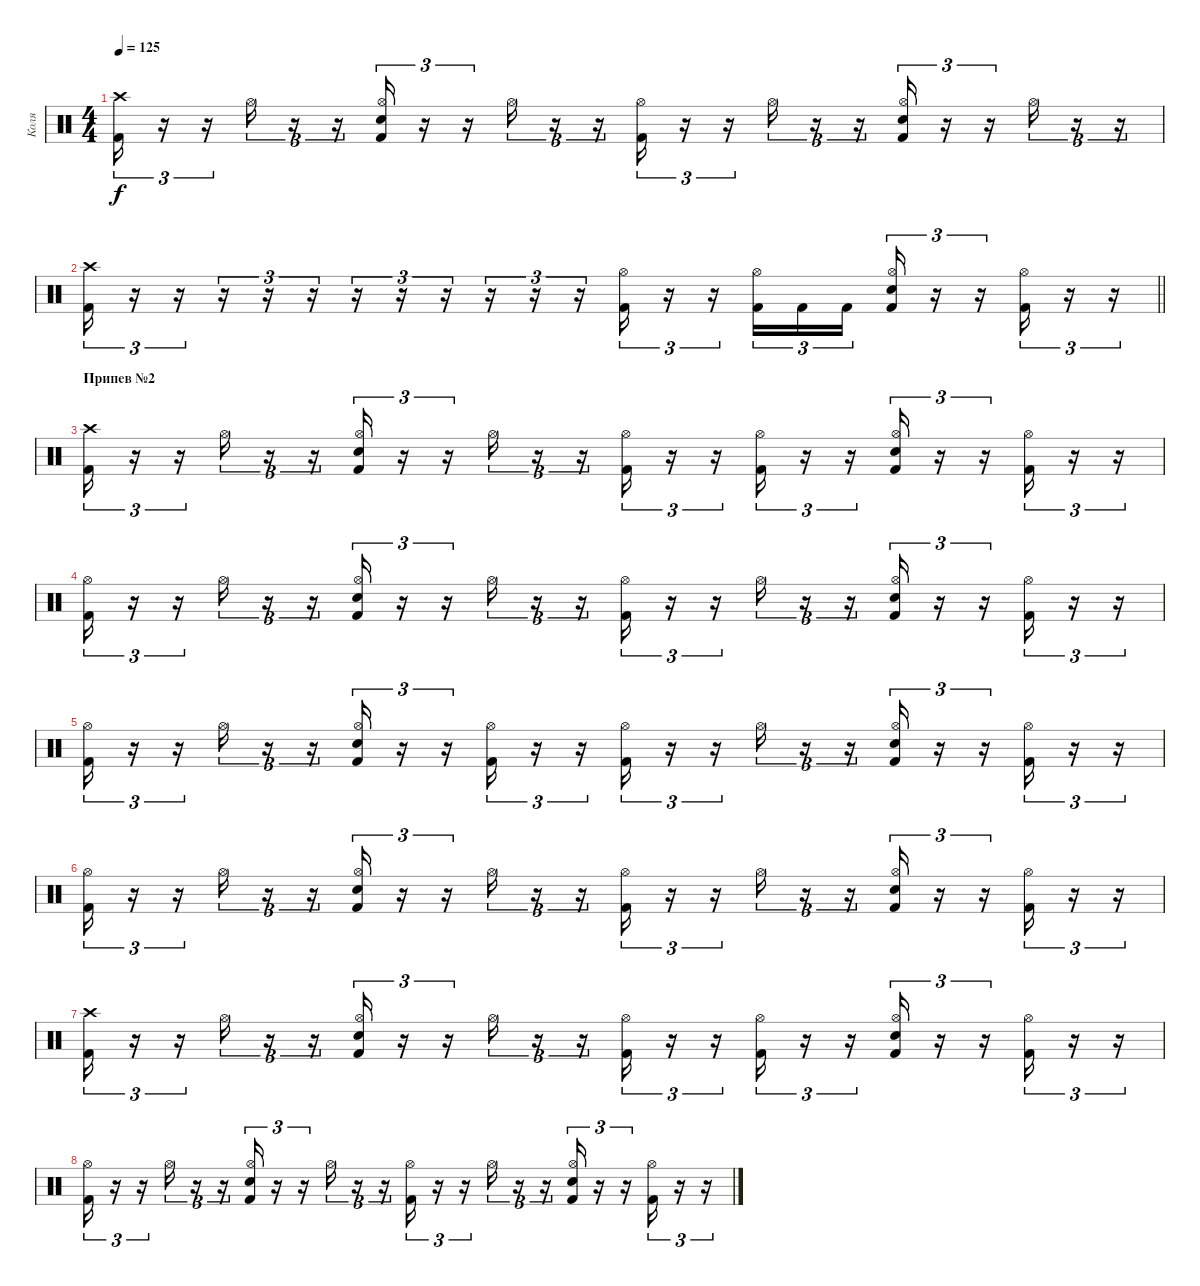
\track ("Коля" "Коля") {instrument percussion}
\staff {score}
\articulation defaults
\ts (4 4)
\tempo 125
\clef neutral
\ks c
("Kick (hit) 2" "Crash high (hit)").16{tu (3 2) dy f} r.16{tu (3 2)} r.16{tu (3 2)} "Hi-Hat (open)".16{tu (3 2)} r.16{tu (3 2)} r.16{tu (3 2)} ("Kick (hit) 2" "Snare (hit) 2" "Hi-Hat (open)").16{tu (3 2)} r.16{tu (3 2)} r.16{tu (3 2)} "Hi-Hat (open)".16{tu (3 2)} r.16{tu (3 2)} r.16{tu (3 2)} ("Kick (hit) 2" "Hi-Hat (open)").16{tu (3 2)} r.16{tu (3 2)} r.16{tu (3 2)} "Hi-Hat (open)".16{tu (3 2)} r.16{tu (3 2)} r.16{tu (3 2)} ("Kick (hit) 2" "Snare (hit) 2" "Hi-Hat (open)").16{tu (3 2)} r.16{tu (3 2)} r.16{tu (3 2)} "Hi-Hat (open)".16{tu (3 2)} r.16{tu (3 2)} r.16{tu (3 2)} |
\barLineRight lightlight
("Kick (hit) 2" "Crash high (hit)").16{tu (3 2)} r.16{tu (3 2)} r.16{tu (3 2)} r.16{tu (3 2)} r.16{tu (3 2)} r.16{tu (3 2)} r.16{tu (3 2)} r.16{tu (3 2)} r.16{tu (3 2)} r.16{tu (3 2)} r.16{tu (3 2)} r.16{tu (3 2)} ("Kick (hit) 2" "Hi-Hat (open)").16{tu (3 2)} r.16{tu (3 2)} r.16{tu (3 2)} ("Kick (hit) 2" "Hi-Hat (open)").16{tu (3 2)} "Kick (hit) 2".16{tu (3 2)} "Kick (hit) 2".16{tu (3 2)} ("Kick (hit) 2" "Snare (hit) 2" "Hi-Hat (open)").16{tu (3 2)} r.16{tu (3 2)} r.16{tu (3 2)} ("Kick (hit) 2" "Hi-Hat (open)").16{tu (3 2)} r.16{tu (3 2)} r.16{tu (3 2)} |
\section ("" "Припев №2")
("Kick (hit) 2" "Crash high (hit)").16{tu (3 2)} r.16{tu (3 2)} r.16{tu (3 2)} "Hi-Hat (open)".16{tu (3 2)} r.16{tu (3 2)} r.16{tu (3 2)} ("Kick (hit) 2" "Snare (hit) 2" "Hi-Hat (open)").16{tu (3 2)} r.16{tu (3 2)} r.16{tu (3 2)} "Hi-Hat (open)".16{tu (3 2)} r.16{tu (3 2)} r.16{tu (3 2)} ("Kick (hit) 2" "Hi-Hat (open)").16{tu (3 2)} r.16{tu (3 2)} r.16{tu (3 2)} ("Kick (hit) 2" "Hi-Hat (open)").16{tu (3 2)} r.16{tu (3 2)} r.16{tu (3 2)} ("Kick (hit) 2" "Snare (hit) 2" "Hi-Hat (open)").16{tu (3 2)} r.16{tu (3 2)} r.16{tu (3 2)} ("Kick (hit) 2" "Hi-Hat (open)").16{tu (3 2)} r.16{tu (3 2)} r.16{tu (3 2)} |
("Kick (hit) 2" "Hi-Hat (open)").16{tu (3 2)} r.16{tu (3 2)} r.16{tu (3 2)} "Hi-Hat (open)".16{tu (3 2)} r.16{tu (3 2)} r.16{tu (3 2)} ("Kick (hit) 2" "Snare (hit) 2" "Hi-Hat (open)").16{tu (3 2)} r.16{tu (3 2)} r.16{tu (3 2)} "Hi-Hat (open)".16{tu (3 2)} r.16{tu (3 2)} r.16{tu (3 2)} ("Kick (hit) 2" "Hi-Hat (open)").16{tu (3 2)} r.16{tu (3 2)} r.16{tu (3 2)} "Hi-Hat (open)".16{tu (3 2)} r.16{tu (3 2)} r.16{tu (3 2)} ("Kick (hit) 2" "Snare (hit) 2" "Hi-Hat (open)").16{tu (3 2)} r.16{tu (3 2)} r.16{tu (3 2)} ("Kick (hit) 2" "Hi-Hat (open)").16{tu (3 2)} r.16{tu (3 2)} r.16{tu (3 2)} |
("Kick (hit) 2" "Hi-Hat (open)").16{tu (3 2)} r.16{tu (3 2)} r.16{tu (3 2)} "Hi-Hat (open)".16{tu (3 2)} r.16{tu (3 2)} r.16{tu (3 2)} ("Kick (hit) 2" "Snare (hit) 2" "Hi-Hat (open)").16{tu (3 2)} r.16{tu (3 2)} r.16{tu (3 2)} ("Kick (hit) 2" "Hi-Hat (open)").16{tu (3 2)} r.16{tu (3 2)} r.16{tu (3 2)} ("Kick (hit) 2" "Hi-Hat (open)").16{tu (3 2)} r.16{tu (3 2)} r.16{tu (3 2)} "Hi-Hat (open)".16{tu (3 2)} r.16{tu (3 2)} r.16{tu (3 2)} ("Kick (hit) 2" "Snare (hit) 2" "Hi-Hat (open)").16{tu (3 2)} r.16{tu (3 2)} r.16{tu (3 2)} ("Kick (hit) 2" "Hi-Hat (open)").16{tu (3 2)} r.16{tu (3 2)} r.16{tu (3 2)} |
("Kick (hit) 2" "Hi-Hat (open)").16{tu (3 2)} r.16{tu (3 2)} r.16{tu (3 2)} "Hi-Hat (open)".16{tu (3 2)} r.16{tu (3 2)} r.16{tu (3 2)} ("Kick (hit) 2" "Snare (hit) 2" "Hi-Hat (open)").16{tu (3 2)} r.16{tu (3 2)} r.16{tu (3 2)} "Hi-Hat (open)".16{tu (3 2)} r.16{tu (3 2)} r.16{tu (3 2)} ("Kick (hit) 2" "Hi-Hat (open)").16{tu (3 2)} r.16{tu (3 2)} r.16{tu (3 2)} "Hi-Hat (open)".16{tu (3 2)} r.16{tu (3 2)} r.16{tu (3 2)} ("Kick (hit) 2" "Snare (hit) 2" "Hi-Hat (open)").16{tu (3 2)} r.16{tu (3 2)} r.16{tu (3 2)} ("Kick (hit) 2" "Hi-Hat (open)").16{tu (3 2)} r.16{tu (3 2)} r.16{tu (3 2)} |
("Kick (hit) 2" "Crash high (hit)").16{tu (3 2)} r.16{tu (3 2)} r.16{tu (3 2)} "Hi-Hat (open)".16{tu (3 2)} r.16{tu (3 2)} r.16{tu (3 2)} ("Kick (hit) 2" "Snare (hit) 2" "Hi-Hat (open)").16{tu (3 2)} r.16{tu (3 2)} r.16{tu (3 2)} "Hi-Hat (open)".16{tu (3 2)} r.16{tu (3 2)} r.16{tu (3 2)} ("Kick (hit) 2" "Hi-Hat (open)").16{tu (3 2)} r.16{tu (3 2)} r.16{tu (3 2)} ("Kick (hit) 2" "Hi-Hat (open)").16{tu (3 2)} r.16{tu (3 2)} r.16{tu (3 2)} ("Kick (hit) 2" "Snare (hit) 2" "Hi-Hat (open)").16{tu (3 2)} r.16{tu (3 2)} r.16{tu (3 2)} ("Kick (hit) 2" "Hi-Hat (open)").16{tu (3 2)} r.16{tu (3 2)} r.16{tu (3 2)} |
("Kick (hit) 2" "Hi-Hat (open)").16{tu (3 2)} r.16{tu (3 2)} r.16{tu (3 2)} "Hi-Hat (open)".16{tu (3 2)} r.16{tu (3 2)} r.16{tu (3 2)} ("Kick (hit) 2" "Snare (hit) 2" "Hi-Hat (open)").16{tu (3 2)} r.16{tu (3 2)} r.16{tu (3 2)} "Hi-Hat (open)".16{tu (3 2)} r.16{tu (3 2)} r.16{tu (3 2)} ("Kick (hit) 2" "Hi-Hat (open)").16{tu (3 2)} r.16{tu (3 2)} r.16{tu (3 2)} "Hi-Hat (open)".16{tu (3 2)} r.16{tu (3 2)} r.16{tu (3 2)} ("Kick (hit) 2" "Snare (hit) 2" "Hi-Hat (open)").16{tu (3 2)} r.16{tu (3 2)} r.16{tu (3 2)} ("Kick (hit) 2" "Hi-Hat (open)").16{tu (3 2)} r.16{tu (3 2)} r.16{tu (3 2)}
